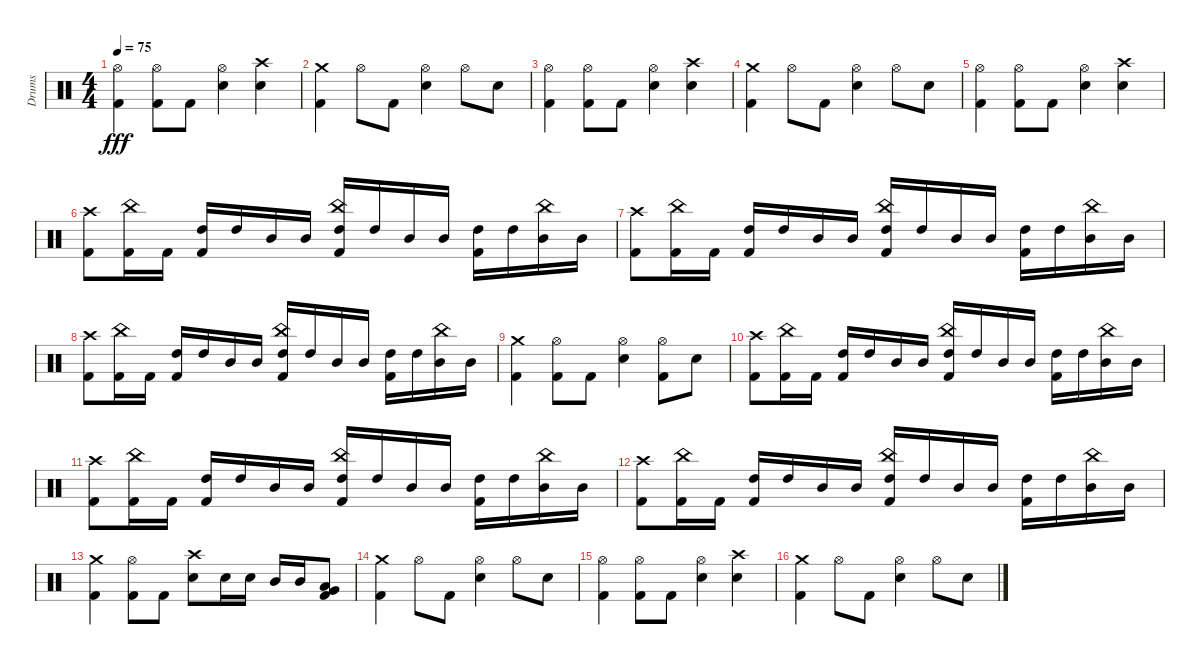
\track ("Drums" "Drums") {instrument percussion}
\staff {score}
\articulation defaults
\ts (4 4)
\tempo 75
\clef neutral
\ks c
("Hi-Hat (open)" "Kick (hit) 2").4{dy fff} ("Hi-Hat (open)" "Kick (hit) 2").8 "Kick (hit) 2".8 ("Hi-Hat (open)" "Snare (hit) 2").4 ("Crash high (hit)" "Snare (hit) 2").4 |
("Crash medium (hit)" "Kick (hit) 2").4 "Hi-Hat (open)".8 "Kick (hit) 2".8 ("Hi-Hat (open)" "Snare (hit) 2").4 "Hi-Hat (open)".8 "Snare (hit) 2".8 |
("Hi-Hat (open)" "Kick (hit) 2").4 ("Hi-Hat (open)" "Kick (hit) 2").8 "Kick (hit) 2".8 ("Hi-Hat (open)" "Snare (hit) 2").4 ("Crash high (hit)" "Snare (hit) 2").4 |
("Crash medium (hit)" "Kick (hit) 2").4 "Hi-Hat (open)".8 "Kick (hit) 2".8 ("Hi-Hat (open)" "Snare (hit) 2").4 "Hi-Hat (open)".8 "Snare (hit) 2".8 |
("Hi-Hat (open)" "Kick (hit) 2").4 ("Hi-Hat (open)" "Kick (hit) 2").8 "Kick (hit) 2".8 ("Hi-Hat (open)" "Snare (hit) 2").4 ("Crash high (hit)" "Snare (hit) 2").4 |
("Kick (hit) 2" "Crash high (hit)").8 ("Kick (hit) 2" "China (hit)").16 "Kick (hit) 2".16 ("High Tom (hit)" "Kick (hit) 2").16 "High Tom (hit)".16 "Mid Tom (hit)".16 "Mid Tom (hit)".16 ("Kick (hit) 2" "High Tom (hit)" "China (hit)").16 "High Tom (hit)".16 "Mid Tom (hit)".16 "Mid Tom (hit)".16 ("Kick (hit) 2" "High Tom (hit)").16 "High Tom (hit)".16 ("Mid Tom (hit)" "China (hit)").16 "Mid Tom (hit)".16 |
("Kick (hit) 2" "Crash high (hit)").8 ("Kick (hit) 2" "China (hit)").16 "Kick (hit) 2".16 ("High Tom (hit)" "Kick (hit) 2").16 "High Tom (hit)".16 "Mid Tom (hit)".16 "Mid Tom (hit)".16 ("Kick (hit) 2" "High Tom (hit)" "China (hit)").16 "High Tom (hit)".16 "Mid Tom (hit)".16 "Mid Tom (hit)".16 ("Kick (hit) 2" "High Tom (hit)").16 "High Tom (hit)".16 ("Mid Tom (hit)" "China (hit)").16 "Mid Tom (hit)".16 |
("Kick (hit) 2" "Crash high (hit)").8 ("Kick (hit) 2" "China (hit)").16 "Kick (hit) 2".16 ("High Tom (hit)" "Kick (hit) 2").16 "High Tom (hit)".16 "Mid Tom (hit)".16 "Mid Tom (hit)".16 ("Kick (hit) 2" "High Tom (hit)" "China (hit)").16 "High Tom (hit)".16 "Mid Tom (hit)".16 "Mid Tom (hit)".16 ("Kick (hit) 2" "High Tom (hit)").16 "High Tom (hit)".16 ("Mid Tom (hit)" "China (hit)").16 "Mid Tom (hit)".16 |
("Crash medium (hit)" "Kick (hit) 2").4 ("Hi-Hat (open)" "Kick (hit) 2").8 "Kick (hit) 2".8 ("Hi-Hat (open)" "Snare (hit) 2").4 ("Hi-Hat (open)" "Kick (hit) 2").8 "Snare (hit) 2".8 |
("Kick (hit) 2" "Crash high (hit)").8 ("Kick (hit) 2" "China (hit)").16 "Kick (hit) 2".16 ("High Tom (hit)" "Kick (hit) 2").16 "High Tom (hit)".16 "Mid Tom (hit)".16 "Mid Tom (hit)".16 ("Kick (hit) 2" "High Tom (hit)" "China (hit)").16 "High Tom (hit)".16 "Mid Tom (hit)".16 "Mid Tom (hit)".16 ("Kick (hit) 2" "High Tom (hit)").16 "High Tom (hit)".16 ("Mid Tom (hit)" "China (hit)").16 "Mid Tom (hit)".16 |
("Kick (hit) 2" "Crash high (hit)").8 ("Kick (hit) 2" "China (hit)").16 "Kick (hit) 2".16 ("High Tom (hit)" "Kick (hit) 2").16 "High Tom (hit)".16 "Mid Tom (hit)".16 "Mid Tom (hit)".16 ("Kick (hit) 2" "High Tom (hit)" "China (hit)").16 "High Tom (hit)".16 "Mid Tom (hit)".16 "Mid Tom (hit)".16 ("Kick (hit) 2" "High Tom (hit)").16 "High Tom (hit)".16 ("Mid Tom (hit)" "China (hit)").16 "Mid Tom (hit)".16 |
("Kick (hit) 2" "Crash high (hit)").8 ("Kick (hit) 2" "China (hit)").16 "Kick (hit) 2".16 ("High Tom (hit)" "Kick (hit) 2").16 "High Tom (hit)".16 "Mid Tom (hit)".16 "Mid Tom (hit)".16 ("Kick (hit) 2" "High Tom (hit)" "China (hit)").16 "High Tom (hit)".16 "Mid Tom (hit)".16 "Mid Tom (hit)".16 ("Kick (hit) 2" "High Tom (hit)").16 "High Tom (hit)".16 ("Mid Tom (hit)" "China (hit)").16 "Mid Tom (hit)".16 |
("Crash medium (hit)" "Kick (hit) 2").4 ("Hi-Hat (open)" "Kick (hit) 2").8 "Kick (hit) 2".8 ("Crash high (hit)" "Snare (hit) 2").8 "Snare (hit) 2".16 "Snare (hit) 2".16 "Mid Tom (hit)".16 "Mid Tom (hit)".16 ("Very Low Tom (hit)" "Low Floor Tom (hit)" "Kick (hit) 2").8 |
("Crash medium (hit)" "Kick (hit) 2").4 "Hi-Hat (open)".8 "Kick (hit) 2".8 ("Hi-Hat (open)" "Snare (hit) 2").4 "Hi-Hat (open)".8 "Snare (hit) 2".8 |
("Hi-Hat (open)" "Kick (hit) 2").4 ("Hi-Hat (open)" "Kick (hit) 2").8 "Kick (hit) 2".8 ("Hi-Hat (open)" "Snare (hit) 2").4 ("Crash high (hit)" "Snare (hit) 2").4 |
("Crash medium (hit)" "Kick (hit) 2").4 "Hi-Hat (open)".8 "Kick (hit) 2".8 ("Hi-Hat (open)" "Snare (hit) 2").4 "Hi-Hat (open)".8 "Snare (hit) 2".8
